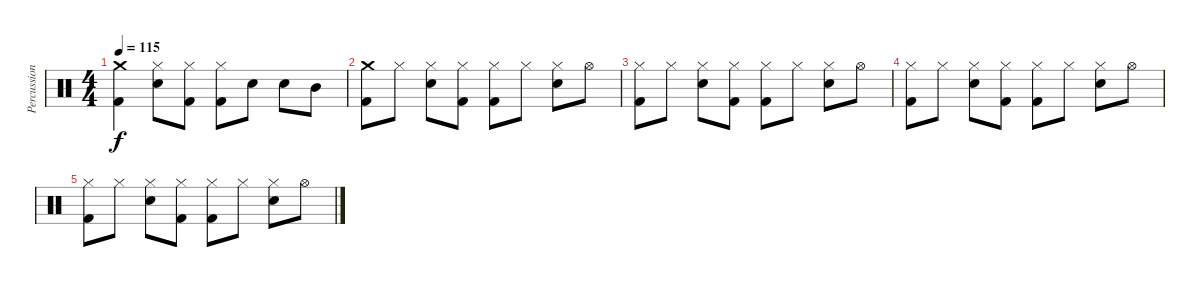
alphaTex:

\track ("Percussion" "Percussion") {instrument percussion}
\staff {score}
\articulation defaults
\ts (4 4)
\tempo 115
\clef neutral
\ks c
("Crash medium (hit)" "Kick (hit) 2").4{dy f} ("Hi-Hat (closed)" "Electric Snare (hit)").8 ("Hi-Hat (closed)" "Kick (hit) 2").8 ("Hi-Hat (closed)" "Kick (hit) 2").8 "Electric Snare (hit)".8 "Electric Snare (hit)".8 "Mid Tom (hit)".8 |
("Crash medium (hit)" "Kick (hit) 2").8 "Hi-Hat (closed)".8 ("Hi-Hat (closed)" "Electric Snare (hit)").8 ("Hi-Hat (closed)" "Kick (hit) 2").8 ("Hi-Hat (closed)" "Kick (hit) 2").8 "Hi-Hat (closed)".8 ("Hi-Hat (closed)" "Electric Snare (hit)").8 "Hi-Hat (open)".8 |
("Hi-Hat (closed)" "Kick (hit) 2").8 "Hi-Hat (closed)".8 ("Hi-Hat (closed)" "Electric Snare (hit)").8 ("Hi-Hat (closed)" "Kick (hit) 2").8 ("Hi-Hat (closed)" "Kick (hit) 2").8 "Hi-Hat (closed)".8 ("Hi-Hat (closed)" "Electric Snare (hit)").8 "Hi-Hat (open)".8 |
("Hi-Hat (closed)" "Kick (hit) 2").8{volume 14} "Hi-Hat (closed)".8 ("Hi-Hat (closed)" "Electric Snare (hit)").8{volume 13} ("Hi-Hat (closed)" "Kick (hit) 2").8 ("Hi-Hat (closed)" "Kick (hit) 2").8{volume 11} "Hi-Hat (closed)".8 ("Hi-Hat (closed)" "Electric Snare (hit)").8{volume 10} "Hi-Hat (open)".8 |
("Hi-Hat (closed)" "Kick (hit) 2").8{volume 8} "Hi-Hat (closed)".8{volume 7} ("Hi-Hat (closed)" "Electric Snare (hit)").8{volume 6} ("Hi-Hat (closed)" "Kick (hit) 2").8{volume 6} ("Hi-Hat (closed)" "Kick (hit) 2").8{volume 5} "Hi-Hat (closed)".8{volume 3} ("Hi-Hat (closed)" "Electric Snare (hit)").8{volume 2} "Hi-Hat (open)".8{volume 1}
